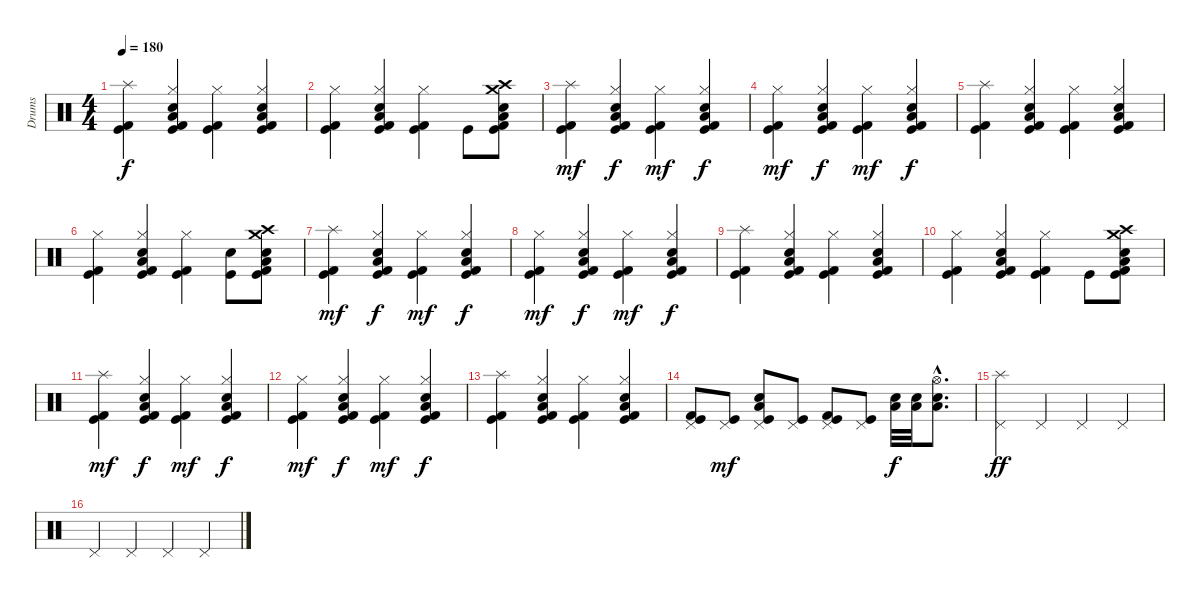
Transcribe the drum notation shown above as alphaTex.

\track ("Drums" "Drums") {instrument percussion}
\staff {score}
\articulation defaults
\ts (4 4)
\tempo 180
\clef neutral
\ks c
("Splash (hit)" "Kick (hit) 2" "Kick (hit)").4{dy f} ("Hi-Hat (closed)" "Electric Snare (hit)" "Low Tom (hit)" "Kick (hit) 2" "Kick (hit)").4 ("Hi-Hat (closed)" "Kick (hit) 2" "Kick (hit)").4 ("Hi-Hat (closed)" "Electric Snare (hit)" "Low Tom (hit)" "Kick (hit) 2" "Kick (hit)").4 |
("Hi-Hat (closed)" "Kick (hit) 2" "Kick (hit)").4 ("Hi-Hat (closed)" "Electric Snare (hit)" "Low Tom (hit)" "Kick (hit) 2" "Kick (hit)").4 ("Hi-Hat (closed)" "Kick (hit) 2" "Kick (hit)").4 "Kick (hit)".8 ("Crash high (hit)" "Electric Snare (hit)" "Low Tom (hit)" "Crash medium (hit)" "Kick (hit) 2" "Kick (hit)").8 |
("Splash (hit)" "Kick (hit) 2" "Kick (hit)").4{dy mf} ("Hi-Hat (closed)" "Electric Snare (hit)" "Low Tom (hit)" "Kick (hit) 2" "Kick (hit)").4{dy f} ("Hi-Hat (closed)" "Kick (hit) 2" "Kick (hit)").4{dy mf} ("Hi-Hat (closed)" "Electric Snare (hit)" "Low Tom (hit)" "Kick (hit) 2" "Kick (hit)").4{dy f} |
("Hi-Hat (closed)" "Kick (hit) 2" "Kick (hit)").4{dy mf} ("Hi-Hat (closed)" "Electric Snare (hit)" "Low Tom (hit)" "Kick (hit) 2" "Kick (hit)").4{dy f} ("Hi-Hat (closed)" "Kick (hit) 2" "Kick (hit)").4{dy mf} ("Hi-Hat (closed)" "Electric Snare (hit)" "Low Tom (hit)" "Kick (hit) 2" "Kick (hit)").4{dy f} |
("Splash (hit)" "Kick (hit) 2" "Kick (hit)").4 ("Hi-Hat (closed)" "Electric Snare (hit)" "Low Tom (hit)" "Kick (hit) 2" "Kick (hit)").4 ("Hi-Hat (closed)" "Kick (hit) 2" "Kick (hit)").4 ("Hi-Hat (closed)" "Electric Snare (hit)" "Low Tom (hit)" "Kick (hit) 2" "Kick (hit)").4 |
("Hi-Hat (closed)" "Kick (hit) 2" "Kick (hit)").4 ("Hi-Hat (closed)" "Electric Snare (hit)" "Low Tom (hit)" "Kick (hit) 2" "Kick (hit)").4 ("Hi-Hat (closed)" "Kick (hit) 2" "Kick (hit)").4 ("Electric Snare (hit)" "Kick (hit)").8 ("Crash high (hit)" "Electric Snare (hit)" "Low Tom (hit)" "Crash medium (hit)" "Kick (hit) 2" "Kick (hit)").8 |
("Splash (hit)" "Kick (hit) 2" "Kick (hit)").4{dy mf} ("Hi-Hat (closed)" "Electric Snare (hit)" "Low Tom (hit)" "Kick (hit) 2" "Kick (hit)").4{dy f} ("Hi-Hat (closed)" "Kick (hit) 2" "Kick (hit)").4{dy mf} ("Hi-Hat (closed)" "Electric Snare (hit)" "Low Tom (hit)" "Kick (hit) 2" "Kick (hit)").4{dy f} |
("Hi-Hat (closed)" "Kick (hit) 2" "Kick (hit)").4{dy mf} ("Hi-Hat (closed)" "Electric Snare (hit)" "Low Tom (hit)" "Kick (hit) 2" "Kick (hit)").4{dy f} ("Hi-Hat (closed)" "Kick (hit) 2" "Kick (hit)").4{dy mf} ("Hi-Hat (closed)" "Electric Snare (hit)" "Low Tom (hit)" "Kick (hit) 2" "Kick (hit)").4{dy f} |
("Splash (hit)" "Kick (hit) 2" "Kick (hit)").4 ("Hi-Hat (closed)" "Electric Snare (hit)" "Low Tom (hit)" "Kick (hit) 2" "Kick (hit)").4 ("Hi-Hat (closed)" "Kick (hit) 2" "Kick (hit)").4 ("Hi-Hat (closed)" "Electric Snare (hit)" "Low Tom (hit)" "Kick (hit) 2" "Kick (hit)").4 |
("Hi-Hat (closed)" "Kick (hit) 2" "Kick (hit)").4 ("Hi-Hat (closed)" "Electric Snare (hit)" "Low Tom (hit)" "Kick (hit) 2" "Kick (hit)").4 ("Hi-Hat (closed)" "Kick (hit) 2" "Kick (hit)").4 "Kick (hit)".8 ("Crash high (hit)" "Electric Snare (hit)" "Low Tom (hit)" "Crash medium (hit)" "Kick (hit) 2" "Kick (hit)").8 |
("Splash (hit)" "Kick (hit) 2" "Kick (hit)").4{dy mf} ("Hi-Hat (closed)" "Electric Snare (hit)" "Low Tom (hit)" "Kick (hit) 2" "Kick (hit)").4{dy f} ("Hi-Hat (closed)" "Kick (hit) 2" "Kick (hit)").4{dy mf} ("Hi-Hat (closed)" "Electric Snare (hit)" "Low Tom (hit)" "Kick (hit) 2" "Kick (hit)").4{dy f} |
("Hi-Hat (closed)" "Kick (hit) 2" "Kick (hit)").4{dy mf} ("Hi-Hat (closed)" "Electric Snare (hit)" "Low Tom (hit)" "Kick (hit) 2" "Kick (hit)").4{dy f} ("Hi-Hat (closed)" "Kick (hit) 2" "Kick (hit)").4{dy mf} ("Hi-Hat (closed)" "Electric Snare (hit)" "Low Tom (hit)" "Kick (hit) 2" "Kick (hit)").4{dy f} |
("Splash (hit)" "Kick (hit) 2" "Kick (hit)").4 ("Hi-Hat (closed)" "Electric Snare (hit)" "Low Tom (hit)" "Kick (hit) 2" "Kick (hit)").4 ("Hi-Hat (closed)" "Kick (hit) 2" "Kick (hit)").4 ("Hi-Hat (closed)" "Electric Snare (hit)" "Low Tom (hit)" "Kick (hit) 2" "Kick (hit)").4 |
("Pedal Hi-Hat (hit)" "Kick (hit) 2" "Kick (hit)").8 ("Pedal Hi-Hat (hit)" "Kick (hit)").8{dy mf} ("Pedal Hi-Hat (hit)" "Electric Snare (hit)" "Low Tom (hit)" "Kick (hit)").8 ("Pedal Hi-Hat (hit)" "Kick (hit)").8 ("Pedal Hi-Hat (hit)" "Kick (hit) 2" "Kick (hit)").8 ("Pedal Hi-Hat (hit)" "Kick (hit)").8 ("Electric Snare (hit)" "Low Tom (hit)").32{dy f} ("Electric Snare (hit)" "Low Tom (hit)").32 ("Hi-Hat (open)"{hac} "Electric Snare (hit)"{hac} "Low Tom (hit)"{hac}).8{d} |
("Splash (hit)" "Pedal Hi-Hat (hit)").4{dy ff} "Pedal Hi-Hat (hit)".4 "Pedal Hi-Hat (hit)".4 "Pedal Hi-Hat (hit)".4 |
"Pedal Hi-Hat (hit)".4 "Pedal Hi-Hat (hit)".4 "Pedal Hi-Hat (hit)".4 "Pedal Hi-Hat (hit)".4
